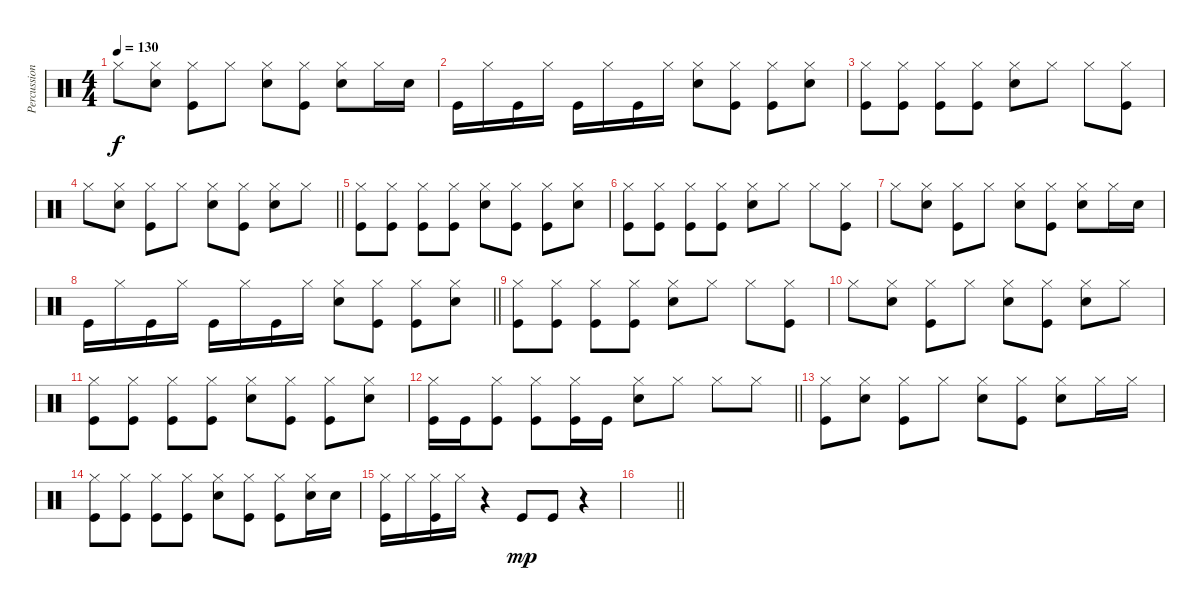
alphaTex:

\track ("Percussion" "Percussion") {instrument percussion}
\staff {score}
\articulation defaults
\ts (4 4)
\tempo 130
\clef neutral
\ks c "Hi-Hat (closed)".8{dy f}
("Hi-Hat (closed)" "Electric Snare (hit)").8 ("Hi-Hat (closed)" "Kick (hit)").8 "Hi-Hat (closed)".8 ("Hi-Hat (closed)" "Electric Snare (hit)").8 ("Hi-Hat (closed)" "Kick (hit)").8 ("Hi-Hat (closed)" "Electric Snare (hit)").8 "Hi-Hat (closed)".16 "Electric Snare (hit)".16 |
"Kick (hit)".16 "Hi-Hat (closed)".16 "Kick (hit)".16 "Hi-Hat (closed)".16 "Kick (hit)".16 "Hi-Hat (closed)".16 "Kick (hit)".16 "Hi-Hat (closed)".16 ("Hi-Hat (closed)" "Electric Snare (hit)").8 ("Hi-Hat (closed)" "Kick (hit)").8 ("Hi-Hat (closed)" "Kick (hit)").8 ("Hi-Hat (closed)" "Electric Snare (hit)").8 |
("Hi-Hat (closed)" "Kick (hit)").8 ("Hi-Hat (closed)" "Kick (hit)").8 ("Hi-Hat (closed)" "Kick (hit)").8 ("Hi-Hat (closed)" "Kick (hit)").8 ("Hi-Hat (closed)" "Electric Snare (hit)").8 "Hi-Hat (closed)".8 "Hi-Hat (closed)".8 ("Hi-Hat (closed)" "Kick (hit)").8 |
\barLineRight lightlight "Hi-Hat (closed)".8
("Hi-Hat (closed)" "Electric Snare (hit)").8 ("Hi-Hat (closed)" "Kick (hit)").8 "Hi-Hat (closed)".8 ("Hi-Hat (closed)" "Electric Snare (hit)").8 ("Hi-Hat (closed)" "Kick (hit)").8 ("Hi-Hat (closed)" "Electric Snare (hit)").8 "Hi-Hat (closed)".8 |
("Hi-Hat (closed)" "Kick (hit)").8 ("Hi-Hat (closed)" "Kick (hit)").8 ("Hi-Hat (closed)" "Kick (hit)").8 ("Hi-Hat (closed)" "Kick (hit)").8 ("Hi-Hat (closed)" "Electric Snare (hit)").8 ("Hi-Hat (closed)" "Kick (hit)").8 ("Hi-Hat (closed)" "Kick (hit)").8 ("Hi-Hat (closed)" "Electric Snare (hit)").8 |
("Hi-Hat (closed)" "Kick (hit)").8 ("Hi-Hat (closed)" "Kick (hit)").8 ("Hi-Hat (closed)" "Kick (hit)").8 ("Hi-Hat (closed)" "Kick (hit)").8 ("Hi-Hat (closed)" "Electric Snare (hit)").8 "Hi-Hat (closed)".8 "Hi-Hat (closed)".8 ("Hi-Hat (closed)" "Kick (hit)").8 |
"Hi-Hat (closed)".8 ("Hi-Hat (closed)" "Electric Snare (hit)").8 ("Hi-Hat (closed)" "Kick (hit)").8 "Hi-Hat (closed)".8 ("Hi-Hat (closed)" "Electric Snare (hit)").8 ("Hi-Hat (closed)" "Kick (hit)").8 ("Hi-Hat (closed)" "Electric Snare (hit)").8 "Hi-Hat (closed)".16 "Electric Snare (hit)".16 |
\barLineRight lightlight "Kick (hit)".16 "Hi-Hat (closed)".16 "Kick (hit)".16 "Hi-Hat (closed)".16 "Kick (hit)".16 "Hi-Hat (closed)".16 "Kick (hit)".16 "Hi-Hat (closed)".16
("Hi-Hat (closed)" "Electric Snare (hit)").8 ("Hi-Hat (closed)" "Kick (hit)").8 ("Hi-Hat (closed)" "Kick (hit)").8 ("Hi-Hat (closed)" "Electric Snare (hit)").8 |
("Hi-Hat (closed)" "Kick (hit)").8 ("Hi-Hat (closed)" "Kick (hit)").8 ("Hi-Hat (closed)" "Kick (hit)").8 ("Hi-Hat (closed)" "Kick (hit)").8 ("Hi-Hat (closed)" "Electric Snare (hit)").8 "Hi-Hat (closed)".8 "Hi-Hat (closed)".8 ("Hi-Hat (closed)" "Kick (hit)").8 |
"Hi-Hat (closed)".8 ("Hi-Hat (closed)" "Electric Snare (hit)").8 ("Hi-Hat (closed)" "Kick (hit)").8 "Hi-Hat (closed)".8 ("Hi-Hat (closed)" "Electric Snare (hit)").8 ("Hi-Hat (closed)" "Kick (hit)").8 ("Hi-Hat (closed)" "Electric Snare (hit)").8 "Hi-Hat (closed)".8 |
("Hi-Hat (closed)" "Kick (hit)").8 ("Hi-Hat (closed)" "Kick (hit)").8 ("Hi-Hat (closed)" "Kick (hit)").8 ("Hi-Hat (closed)" "Kick (hit)").8 ("Hi-Hat (closed)" "Electric Snare (hit)").8 ("Hi-Hat (closed)" "Kick (hit)").8 ("Hi-Hat (closed)" "Kick (hit)").8 ("Hi-Hat (closed)" "Electric Snare (hit)").8 |
\barLineRight lightlight
("Hi-Hat (closed)" "Kick (hit)").16 "Kick (hit)".16 ("Hi-Hat (closed)" "Kick (hit)").8 ("Hi-Hat (closed)" "Kick (hit)").8 ("Hi-Hat (closed)" "Kick (hit)").16 "Kick (hit)".16 ("Hi-Hat (closed)" "Electric Snare (hit)").8 "Hi-Hat (closed)".8 "Hi-Hat (closed)".8 "Hi-Hat (closed)".8 |
("Hi-Hat (closed)" "Kick (hit)").8 ("Hi-Hat (closed)" "Electric Snare (hit)").8 ("Hi-Hat (closed)" "Kick (hit)").8 "Hi-Hat (closed)".8 ("Hi-Hat (closed)" "Electric Snare (hit)").8 ("Hi-Hat (closed)" "Kick (hit)").8 ("Hi-Hat (closed)" "Electric Snare (hit)").8 "Hi-Hat (closed)".16 "Hi-Hat (closed)".16 |
("Hi-Hat (closed)" "Kick (hit)").8 ("Hi-Hat (closed)" "Kick (hit)").8 ("Hi-Hat (closed)" "Kick (hit)").8 ("Hi-Hat (closed)" "Kick (hit)").8 ("Hi-Hat (closed)" "Electric Snare (hit)").8 ("Hi-Hat (closed)" "Kick (hit)").8 ("Hi-Hat (closed)" "Kick (hit)").8 ("Hi-Hat (closed)" "Electric Snare (hit)").16 "Electric Snare (hit)".16 |
("Hi-Hat (closed)" "Kick (hit)").16 "Hi-Hat (closed)".16 ("Hi-Hat (closed)" "Kick (hit)").16 "Hi-Hat (closed)".16 r.4 "Kick (hit)".8{dy mp} "Kick (hit)".8 r.4 |
\barLineRight lightlight
